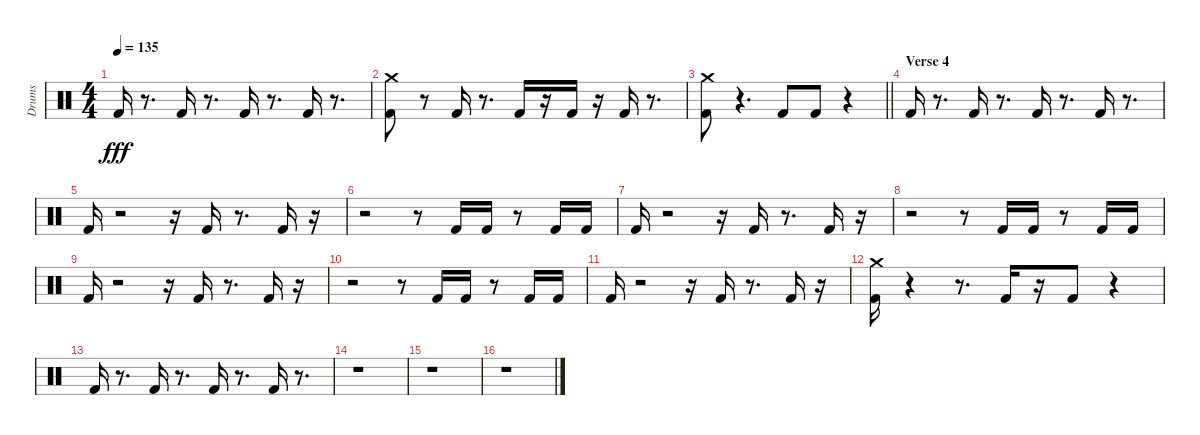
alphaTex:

\track ("Drums" "Drums") {instrument percussion}
\staff {score}
\articulation defaults
\ts (4 4)
\tempo 135
\clef neutral
\ks c "Kick (hit) 2".16{dy fff}
r.8{d} "Kick (hit) 2".16 r.8{d} "Kick (hit) 2".16 r.8{d} "Kick (hit) 2".16 r.8{d} |
("Kick (hit) 2" "Crash medium (hit)").8 r.8 "Kick (hit) 2".16 r.8{d} "Kick (hit) 2".16 r.16 "Kick (hit) 2".16 r.16 "Kick (hit) 2".16 r.8{d} |
\barLineRight lightlight
("Kick (hit) 2" "Crash medium (hit)").8 r.4{d} "Kick (hit) 2".8 "Kick (hit) 2".8 r.4 |
\section ("" "Verse 4")
"Kick (hit) 2".16 r.8{d} "Kick (hit) 2".16 r.8{d} "Kick (hit) 2".16 r.8{d} "Kick (hit) 2".16 r.8{d} |
"Kick (hit) 2".16 r.2 r.16 "Kick (hit) 2".16 r.8{d} "Kick (hit) 2".16 r.16 |
r.2 r.8 "Kick (hit) 2".16 "Kick (hit) 2".16 r.8 "Kick (hit) 2".16 "Kick (hit) 2".16 |
"Kick (hit) 2".16 r.2 r.16 "Kick (hit) 2".16 r.8{d} "Kick (hit) 2".16 r.16 |
r.2 r.8 "Kick (hit) 2".16 "Kick (hit) 2".16 r.8 "Kick (hit) 2".16 "Kick (hit) 2".16 |
"Kick (hit) 2".16 r.2 r.16 "Kick (hit) 2".16 r.8{d} "Kick (hit) 2".16 r.16 |
r.2 r.8 "Kick (hit) 2".16 "Kick (hit) 2".16 r.8 "Kick (hit) 2".16 "Kick (hit) 2".16 |
"Kick (hit) 2".16 r.2 r.16 "Kick (hit) 2".16 r.8{d} "Kick (hit) 2".16 r.16 |
("Kick (hit) 2" "Crash medium (hit)").16 r.4 r.8{d} "Kick (hit) 2".16 r.16 "Kick (hit) 2".8 r.4 |
"Kick (hit) 2".16 r.8{d} "Kick (hit) 2".16 r.8{d} "Kick (hit) 2".16 r.8{d} "Kick (hit) 2".16 r.8{d} |
r.1 |
r.1 |
r.1
